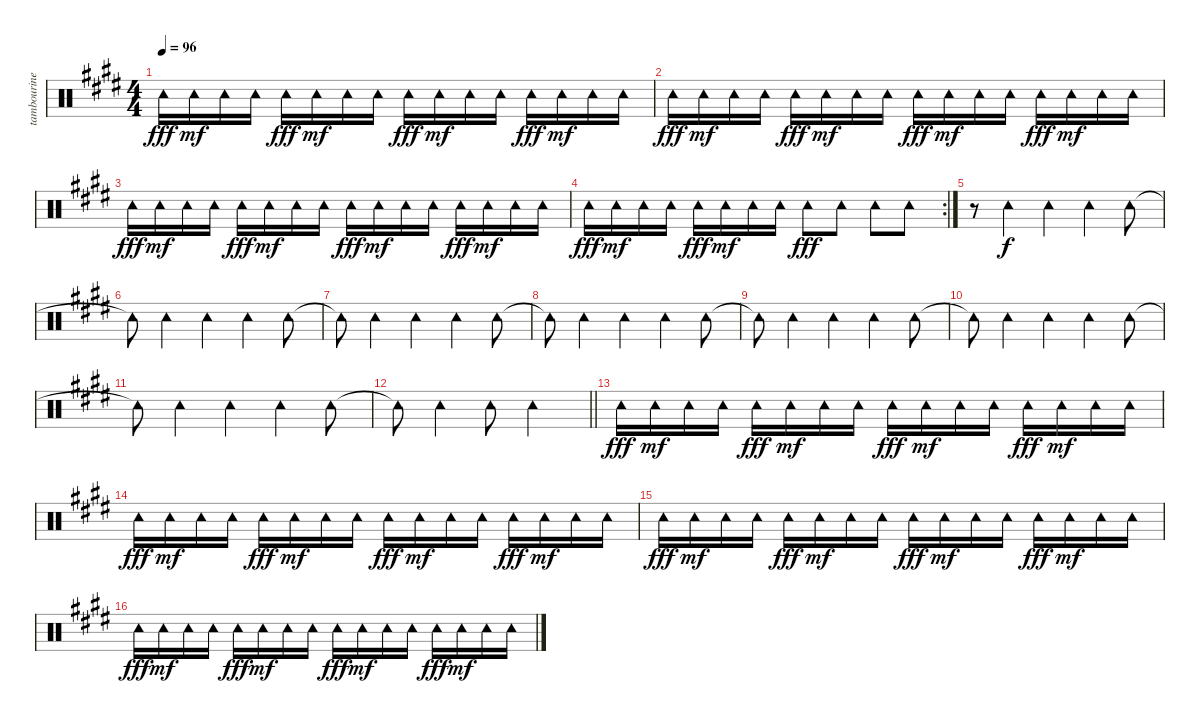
\track ("tambourine" "tambourine") {instrument percussion}
\staff {score}
\articulation defaults
\ts (4 4)
\tempo 96
\clef neutral
\ks e "Tambourine (hit)".16{dy fff} "Tambourine (hit)".16{dy mf} "Tambourine (hit)".16 "Tambourine (hit)".16 "Tambourine (hit)".16{dy fff} "Tambourine (hit)".16{dy mf} "Tambourine (hit)".16 "Tambourine (hit)".16 "Tambourine (hit)".16{dy fff} "Tambourine (hit)".16{dy mf} "Tambourine (hit)".16 "Tambourine (hit)".16 "Tambourine (hit)".16{dy fff} "Tambourine (hit)".16{dy mf} "Tambourine (hit)".16 "Tambourine (hit)".16
|
"Tambourine (hit)".16{dy fff} "Tambourine (hit)".16{dy mf} "Tambourine (hit)".16 "Tambourine (hit)".16 "Tambourine (hit)".16{dy fff} "Tambourine (hit)".16{dy mf} "Tambourine (hit)".16 "Tambourine (hit)".16 "Tambourine (hit)".16{dy fff} "Tambourine (hit)".16{dy mf} "Tambourine (hit)".16 "Tambourine (hit)".16 "Tambourine (hit)".16{dy fff} "Tambourine (hit)".16{dy mf} "Tambourine (hit)".16 "Tambourine (hit)".16 |
"Tambourine (hit)".16{dy fff} "Tambourine (hit)".16{dy mf} "Tambourine (hit)".16 "Tambourine (hit)".16 "Tambourine (hit)".16{dy fff} "Tambourine (hit)".16{dy mf} "Tambourine (hit)".16 "Tambourine (hit)".16 "Tambourine (hit)".16{dy fff} "Tambourine (hit)".16{dy mf} "Tambourine (hit)".16 "Tambourine (hit)".16 "Tambourine (hit)".16{dy fff} "Tambourine (hit)".16{dy mf} "Tambourine (hit)".16 "Tambourine (hit)".16 |
\rc 2 "Tambourine (hit)".16{dy fff} "Tambourine (hit)".16{dy mf} "Tambourine (hit)".16 "Tambourine (hit)".16 "Tambourine (hit)".16{dy fff} "Tambourine (hit)".16{dy mf} "Tambourine (hit)".16 "Tambourine (hit)".16 "Tambourine (hit)".8{dy fff} "Tambourine (hit)".8 "Tambourine (hit)".8 "Tambourine (hit)".8
|
r.8 "Tambourine (hit)".4{dy f} "Tambourine (hit)".4 "Tambourine (hit)".4 "Tambourine (hit)".8 |
"Tambourine (hit)"{t}.8 "Tambourine (hit)".4 "Tambourine (hit)".4 "Tambourine (hit)".4 "Tambourine (hit)".8 |
"Tambourine (hit)"{t}.8 "Tambourine (hit)".4 "Tambourine (hit)".4 "Tambourine (hit)".4 "Tambourine (hit)".8 |
"Tambourine (hit)"{t}.8 "Tambourine (hit)".4 "Tambourine (hit)".4 "Tambourine (hit)".4 "Tambourine (hit)".8 |
"Tambourine (hit)"{t}.8 "Tambourine (hit)".4 "Tambourine (hit)".4 "Tambourine (hit)".4 "Tambourine (hit)".8 |
"Tambourine (hit)"{t}.8 "Tambourine (hit)".4 "Tambourine (hit)".4 "Tambourine (hit)".4 "Tambourine (hit)".8 |
"Tambourine (hit)"{t}.8 "Tambourine (hit)".4 "Tambourine (hit)".4 "Tambourine (hit)".4 "Tambourine (hit)".8 |
\barLineRight lightlight "Tambourine (hit)"{t}.8 "Tambourine (hit)".4 "Tambourine (hit)".8 "Tambourine (hit)".2
|
"Tambourine (hit)".16{dy fff} "Tambourine (hit)".16{dy mf} "Tambourine (hit)".16 "Tambourine (hit)".16 "Tambourine (hit)".16{dy fff} "Tambourine (hit)".16{dy mf} "Tambourine (hit)".16 "Tambourine (hit)".16 "Tambourine (hit)".16{dy fff} "Tambourine (hit)".16{dy mf} "Tambourine (hit)".16 "Tambourine (hit)".16 "Tambourine (hit)".16{dy fff} "Tambourine (hit)".16{dy mf} "Tambourine (hit)".16 "Tambourine (hit)".16 |
"Tambourine (hit)".16{dy fff} "Tambourine (hit)".16{dy mf} "Tambourine (hit)".16 "Tambourine (hit)".16 "Tambourine (hit)".16{dy fff} "Tambourine (hit)".16{dy mf} "Tambourine (hit)".16 "Tambourine (hit)".16 "Tambourine (hit)".16{dy fff} "Tambourine (hit)".16{dy mf} "Tambourine (hit)".16 "Tambourine (hit)".16 "Tambourine (hit)".16{dy fff} "Tambourine (hit)".16{dy mf} "Tambourine (hit)".16 "Tambourine (hit)".16 |
"Tambourine (hit)".16{dy fff} "Tambourine (hit)".16{dy mf} "Tambourine (hit)".16 "Tambourine (hit)".16 "Tambourine (hit)".16{dy fff} "Tambourine (hit)".16{dy mf} "Tambourine (hit)".16 "Tambourine (hit)".16 "Tambourine (hit)".16{dy fff} "Tambourine (hit)".16{dy mf} "Tambourine (hit)".16 "Tambourine (hit)".16 "Tambourine (hit)".16{dy fff} "Tambourine (hit)".16{dy mf} "Tambourine (hit)".16 "Tambourine (hit)".16 |
"Tambourine (hit)".16{dy fff} "Tambourine (hit)".16{dy mf} "Tambourine (hit)".16 "Tambourine (hit)".16 "Tambourine (hit)".16{dy fff} "Tambourine (hit)".16{dy mf} "Tambourine (hit)".16 "Tambourine (hit)".16 "Tambourine (hit)".16{dy fff} "Tambourine (hit)".16{dy mf} "Tambourine (hit)".16 "Tambourine (hit)".16 "Tambourine (hit)".16{dy fff} "Tambourine (hit)".16{dy mf} "Tambourine (hit)".16 "Tambourine (hit)".16
